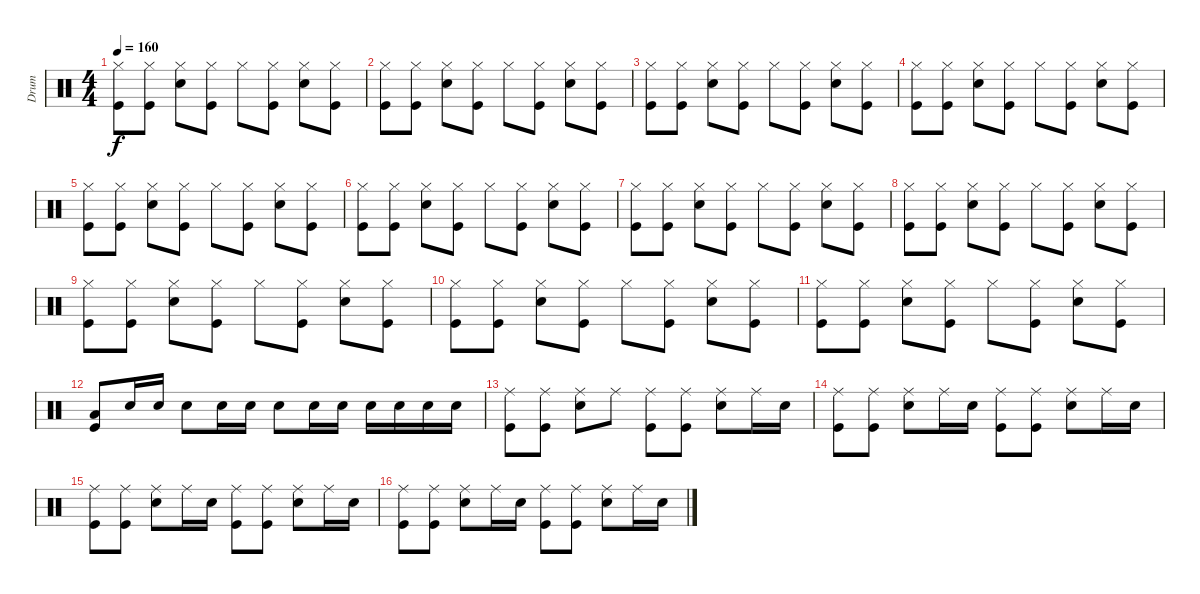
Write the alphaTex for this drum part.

\track ("Drum" "Drum") {instrument percussion}
\staff {score}
\articulation defaults
\ts (4 4)
\tempo 160
\clef neutral
\ks c
("Hi-Hat (closed)" "Kick (hit)").8{dy f} ("Hi-Hat (closed)" "Kick (hit)").8 ("Hi-Hat (closed)" "Electric Snare (hit)").8 ("Hi-Hat (closed)" "Kick (hit)").8 "Hi-Hat (closed)".8 ("Hi-Hat (closed)" "Kick (hit)").8 ("Hi-Hat (closed)" "Electric Snare (hit)").8 ("Hi-Hat (closed)" "Kick (hit)").8 |
("Hi-Hat (closed)" "Kick (hit)").8 ("Hi-Hat (closed)" "Kick (hit)").8 ("Hi-Hat (closed)" "Electric Snare (hit)").8 ("Hi-Hat (closed)" "Kick (hit)").8 "Hi-Hat (closed)".8 ("Hi-Hat (closed)" "Kick (hit)").8 ("Hi-Hat (closed)" "Electric Snare (hit)").8 ("Hi-Hat (closed)" "Kick (hit)").8 |
("Hi-Hat (closed)" "Kick (hit)").8 ("Hi-Hat (closed)" "Kick (hit)").8 ("Hi-Hat (closed)" "Electric Snare (hit)").8 ("Hi-Hat (closed)" "Kick (hit)").8 "Hi-Hat (closed)".8 ("Hi-Hat (closed)" "Kick (hit)").8 ("Hi-Hat (closed)" "Electric Snare (hit)").8 ("Hi-Hat (closed)" "Kick (hit)").8 |
("Hi-Hat (closed)" "Kick (hit)").8 ("Hi-Hat (closed)" "Kick (hit)").8 ("Hi-Hat (closed)" "Electric Snare (hit)").8 ("Hi-Hat (closed)" "Kick (hit)").8 "Hi-Hat (closed)".8 ("Hi-Hat (closed)" "Kick (hit)").8 ("Hi-Hat (closed)" "Electric Snare (hit)").8 ("Hi-Hat (closed)" "Kick (hit)").8 |
("Hi-Hat (closed)" "Kick (hit)").8 ("Hi-Hat (closed)" "Kick (hit)").8 ("Hi-Hat (closed)" "Electric Snare (hit)").8 ("Hi-Hat (closed)" "Kick (hit)").8 "Hi-Hat (closed)".8 ("Hi-Hat (closed)" "Kick (hit)").8 ("Hi-Hat (closed)" "Electric Snare (hit)").8 ("Hi-Hat (closed)" "Kick (hit)").8 |
("Hi-Hat (closed)" "Kick (hit)").8 ("Hi-Hat (closed)" "Kick (hit)").8 ("Hi-Hat (closed)" "Electric Snare (hit)").8 ("Hi-Hat (closed)" "Kick (hit)").8 "Hi-Hat (closed)".8 ("Hi-Hat (closed)" "Kick (hit)").8 ("Hi-Hat (closed)" "Electric Snare (hit)").8 ("Hi-Hat (closed)" "Kick (hit)").8 |
("Hi-Hat (closed)" "Kick (hit)").8 ("Hi-Hat (closed)" "Kick (hit)").8 ("Hi-Hat (closed)" "Electric Snare (hit)").8 ("Hi-Hat (closed)" "Kick (hit)").8 "Hi-Hat (closed)".8 ("Hi-Hat (closed)" "Kick (hit)").8 ("Hi-Hat (closed)" "Electric Snare (hit)").8 ("Hi-Hat (closed)" "Kick (hit)").8 |
("Hi-Hat (closed)" "Kick (hit)").8 ("Hi-Hat (closed)" "Kick (hit)").8 ("Hi-Hat (closed)" "Electric Snare (hit)").8 ("Hi-Hat (closed)" "Kick (hit)").8 "Hi-Hat (closed)".8 ("Hi-Hat (closed)" "Kick (hit)").8 ("Hi-Hat (closed)" "Electric Snare (hit)").8 ("Hi-Hat (closed)" "Kick (hit)").8 |
("Hi-Hat (closed)" "Kick (hit)").8 ("Hi-Hat (closed)" "Kick (hit)").8 ("Hi-Hat (closed)" "Electric Snare (hit)").8 ("Hi-Hat (closed)" "Kick (hit)").8 "Hi-Hat (closed)".8 ("Hi-Hat (closed)" "Kick (hit)").8 ("Hi-Hat (closed)" "Electric Snare (hit)").8 ("Hi-Hat (closed)" "Kick (hit)").8 |
("Hi-Hat (closed)" "Kick (hit)").8 ("Hi-Hat (closed)" "Kick (hit)").8 ("Hi-Hat (closed)" "Electric Snare (hit)").8 ("Hi-Hat (closed)" "Kick (hit)").8 "Hi-Hat (closed)".8 ("Hi-Hat (closed)" "Kick (hit)").8 ("Hi-Hat (closed)" "Electric Snare (hit)").8 ("Hi-Hat (closed)" "Kick (hit)").8 |
("Hi-Hat (closed)" "Kick (hit)").8 ("Hi-Hat (closed)" "Kick (hit)").8 ("Hi-Hat (closed)" "Electric Snare (hit)").8 ("Hi-Hat (closed)" "Kick (hit)").8 "Hi-Hat (closed)".8 ("Hi-Hat (closed)" "Kick (hit)").8 ("Hi-Hat (closed)" "Electric Snare (hit)").8 ("Hi-Hat (closed)" "Kick (hit)").8 |
("Low Tom (hit)" "Kick (hit)").8 "Electric Snare (hit)".16 "Electric Snare (hit)".16 "Electric Snare (hit)".8 "Electric Snare (hit)".16 "Electric Snare (hit)".16 "Electric Snare (hit)".8 "Electric Snare (hit)".16 "Electric Snare (hit)".16 "Electric Snare (hit)".16 "Electric Snare (hit)".16 "Electric Snare (hit)".16 "Electric Snare (hit)".16 |
("Ride (middle)" "Kick (hit)").8 ("Ride (middle)" "Kick (hit)").8 ("Ride (middle)" "Electric Snare (hit)").8 "Ride (middle)".8 ("Ride (middle)" "Kick (hit)").8 ("Ride (middle)" "Kick (hit)").8 ("Ride (middle)" "Electric Snare (hit)").8 "Ride (middle)".16 "Electric Snare (hit)".16 |
("Ride (middle)" "Kick (hit)").8 ("Ride (middle)" "Kick (hit)").8 ("Ride (middle)" "Electric Snare (hit)").8 "Ride (middle)".16 "Electric Snare (hit)".16 ("Ride (middle)" "Kick (hit)").8 ("Ride (middle)" "Kick (hit)").8 ("Ride (middle)" "Electric Snare (hit)").8 "Ride (middle)".16 "Electric Snare (hit)".16 |
("Ride (middle)" "Kick (hit)").8 ("Ride (middle)" "Kick (hit)").8 ("Ride (middle)" "Electric Snare (hit)").8 "Ride (middle)".16 "Electric Snare (hit)".16 ("Ride (middle)" "Kick (hit)").8 ("Ride (middle)" "Kick (hit)").8 ("Ride (middle)" "Electric Snare (hit)").8 "Ride (middle)".16 "Electric Snare (hit)".16 |
("Ride (middle)" "Kick (hit)").8 ("Ride (middle)" "Kick (hit)").8 ("Ride (middle)" "Electric Snare (hit)").8 "Ride (middle)".16 "Electric Snare (hit)".16 ("Ride (middle)" "Kick (hit)").8 ("Ride (middle)" "Kick (hit)").8 ("Ride (middle)" "Electric Snare (hit)").8 "Ride (middle)".16 "Electric Snare (hit)".16
